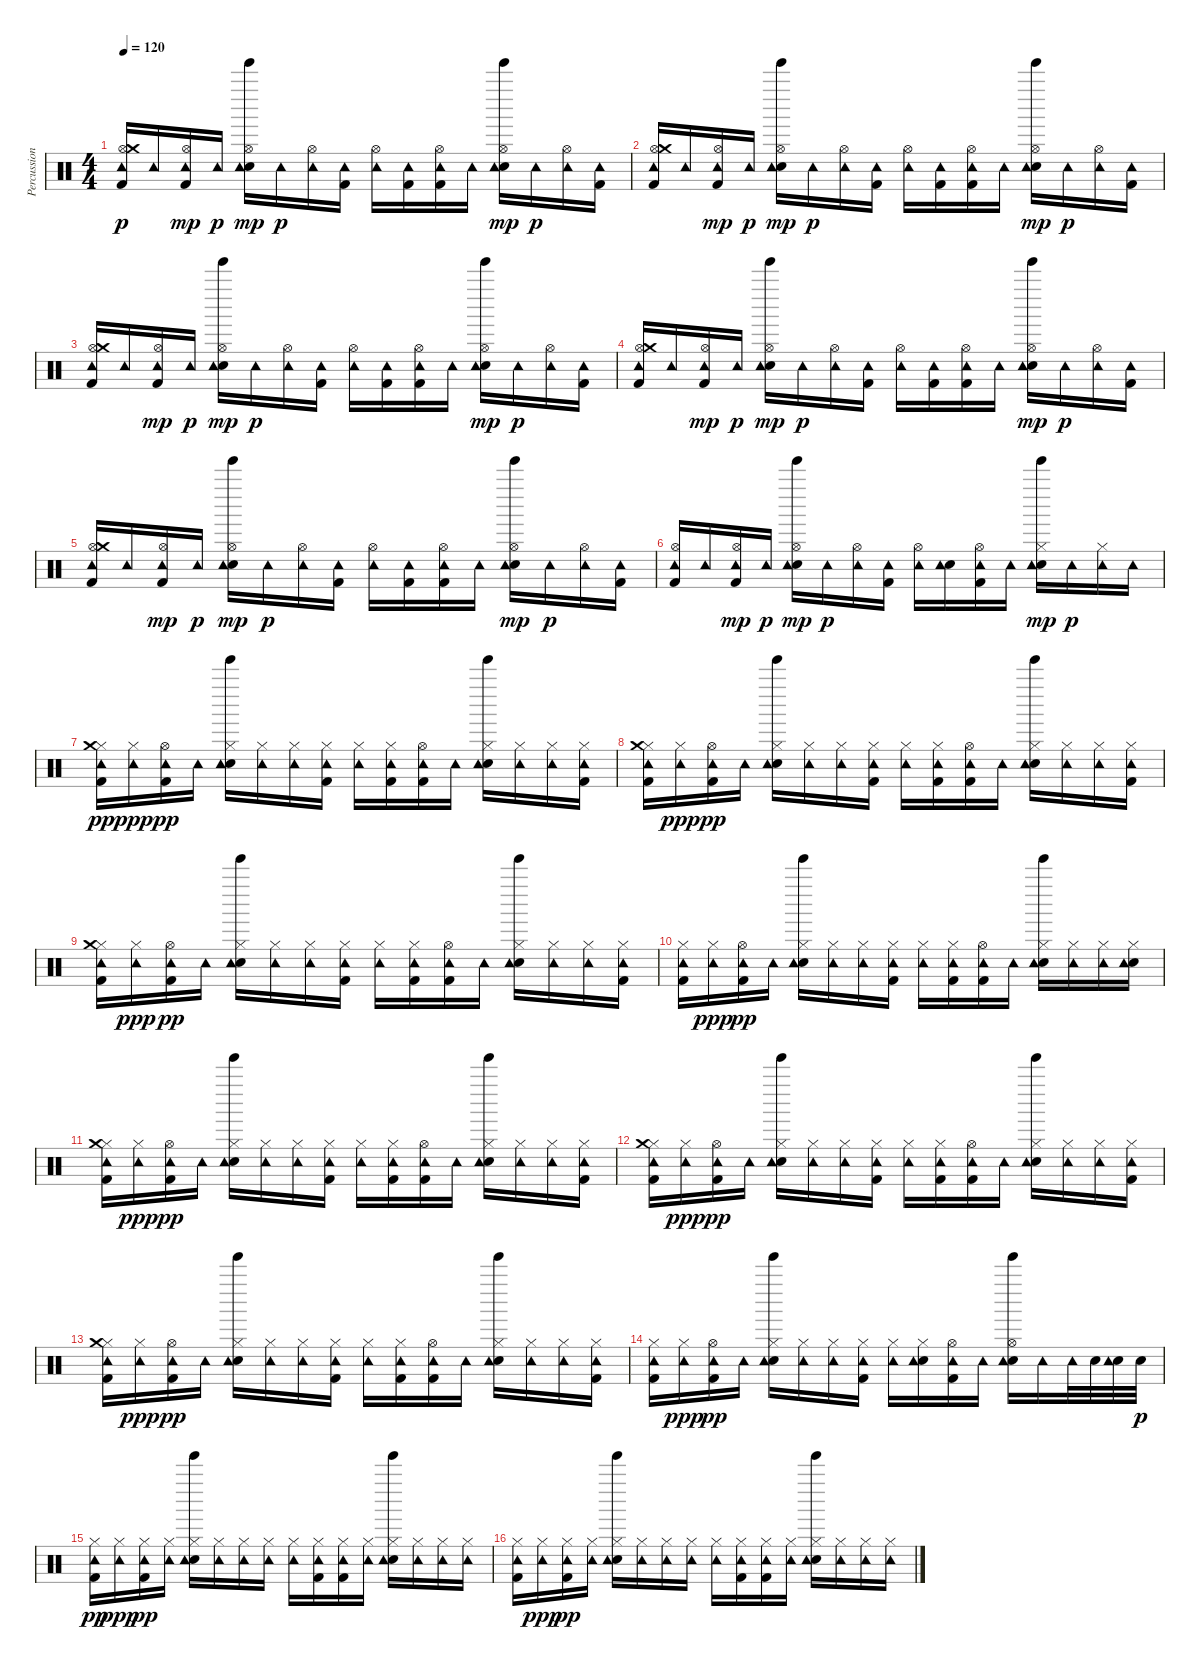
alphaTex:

\track ("Percussioni" "Percussion") {instrument percussion}
\staff {score}
\articulation defaults
\ts (4 4)
\tempo 120
\clef neutral
\ks c
("Kick (hit) 2" "Hi-Hat (open)" "Crash medium (hit)" "Tambourine (hit)").16{dy p} "Tambourine (hit)".16 ("Kick (hit) 2" "Hi-Hat (open)" "Tambourine (hit)").16{dy mp} "Tambourine (hit)".16{dy p} ("Electric Snare (hit)" "Hi-Hat (open)" "Tambourine (hit)" "Tinkle Bell (hit)").16{dy mp} "Tambourine (hit)".16{dy p} ("Hi-Hat (open)" "Tambourine (hit)").16 ("Kick (hit) 2" "Tambourine (hit)").16 ("Hi-Hat (open)" "Tambourine (hit)").16 ("Kick (hit) 2" "Tambourine (hit)").16 ("Kick (hit) 2" "Hi-Hat (open)" "Tambourine (hit)").16 "Tambourine (hit)".16 ("Electric Snare (hit)" "Hi-Hat (open)" "Tambourine (hit)" "Tinkle Bell (hit)").16{dy mp} "Tambourine (hit)".16{dy p} ("Hi-Hat (open)" "Tambourine (hit)").16 ("Kick (hit) 2" "Tambourine (hit)").16 |
("Kick (hit) 2" "Hi-Hat (open)" "Crash medium (hit)" "Tambourine (hit)").16 "Tambourine (hit)".16 ("Kick (hit) 2" "Hi-Hat (open)" "Tambourine (hit)").16{dy mp} "Tambourine (hit)".16{dy p} ("Electric Snare (hit)" "Hi-Hat (open)" "Tambourine (hit)" "Tinkle Bell (hit)").16{dy mp} "Tambourine (hit)".16{dy p} ("Hi-Hat (open)" "Tambourine (hit)").16 ("Kick (hit) 2" "Tambourine (hit)").16 ("Hi-Hat (open)" "Tambourine (hit)").16 ("Kick (hit) 2" "Tambourine (hit)").16 ("Kick (hit) 2" "Hi-Hat (open)" "Tambourine (hit)").16 "Tambourine (hit)".16 ("Electric Snare (hit)" "Hi-Hat (open)" "Tambourine (hit)" "Tinkle Bell (hit)").16{dy mp} "Tambourine (hit)".16{dy p} ("Hi-Hat (open)" "Tambourine (hit)").16 ("Kick (hit) 2" "Tambourine (hit)").16 |
("Kick (hit) 2" "Hi-Hat (open)" "Crash medium (hit)" "Tambourine (hit)").16 "Tambourine (hit)".16 ("Kick (hit) 2" "Hi-Hat (open)" "Tambourine (hit)").16{dy mp} "Tambourine (hit)".16{dy p} ("Electric Snare (hit)" "Hi-Hat (open)" "Tambourine (hit)" "Tinkle Bell (hit)").16{dy mp} "Tambourine (hit)".16{dy p} ("Hi-Hat (open)" "Tambourine (hit)").16 ("Kick (hit) 2" "Tambourine (hit)").16 ("Hi-Hat (open)" "Tambourine (hit)").16 ("Kick (hit) 2" "Tambourine (hit)").16 ("Kick (hit) 2" "Hi-Hat (open)" "Tambourine (hit)").16 "Tambourine (hit)".16 ("Electric Snare (hit)" "Hi-Hat (open)" "Tambourine (hit)" "Tinkle Bell (hit)").16{dy mp} "Tambourine (hit)".16{dy p} ("Hi-Hat (open)" "Tambourine (hit)").16 ("Kick (hit) 2" "Tambourine (hit)").16 |
("Kick (hit) 2" "Hi-Hat (open)" "Crash medium (hit)" "Tambourine (hit)").16 "Tambourine (hit)".16 ("Kick (hit) 2" "Hi-Hat (open)" "Tambourine (hit)").16{dy mp} "Tambourine (hit)".16{dy p} ("Electric Snare (hit)" "Hi-Hat (open)" "Tambourine (hit)" "Tinkle Bell (hit)").16{dy mp} "Tambourine (hit)".16{dy p} ("Hi-Hat (open)" "Tambourine (hit)").16 ("Kick (hit) 2" "Tambourine (hit)").16 ("Hi-Hat (open)" "Tambourine (hit)").16 ("Kick (hit) 2" "Tambourine (hit)").16 ("Kick (hit) 2" "Hi-Hat (open)" "Tambourine (hit)").16 "Tambourine (hit)".16 ("Electric Snare (hit)" "Hi-Hat (open)" "Tambourine (hit)" "Tinkle Bell (hit)").16{dy mp} "Tambourine (hit)".16{dy p} ("Hi-Hat (open)" "Tambourine (hit)").16 ("Kick (hit) 2" "Tambourine (hit)").16 |
("Kick (hit) 2" "Hi-Hat (open)" "Crash medium (hit)" "Tambourine (hit)").16 "Tambourine (hit)".16 ("Kick (hit) 2" "Hi-Hat (open)" "Tambourine (hit)").16{dy mp} "Tambourine (hit)".16{dy p} ("Electric Snare (hit)" "Hi-Hat (open)" "Tambourine (hit)" "Tinkle Bell (hit)").16{dy mp} "Tambourine (hit)".16{dy p} ("Hi-Hat (open)" "Tambourine (hit)").16 ("Kick (hit) 2" "Tambourine (hit)").16 ("Hi-Hat (open)" "Tambourine (hit)").16 ("Kick (hit) 2" "Tambourine (hit)").16 ("Kick (hit) 2" "Hi-Hat (open)" "Tambourine (hit)").16 "Tambourine (hit)".16 ("Electric Snare (hit)" "Hi-Hat (open)" "Tambourine (hit)" "Tinkle Bell (hit)").16{dy mp} "Tambourine (hit)".16{dy p} ("Hi-Hat (open)" "Tambourine (hit)").16 ("Kick (hit) 2" "Tambourine (hit)").16 |
("Kick (hit) 2" "Hi-Hat (open)" "Tambourine (hit)").16 "Tambourine (hit)".16 ("Kick (hit) 2" "Hi-Hat (open)" "Tambourine (hit)").16{dy mp} "Tambourine (hit)".16{dy p} ("Electric Snare (hit)" "Hi-Hat (open)" "Tambourine (hit)" "Tinkle Bell (hit)").16{dy mp} "Tambourine (hit)".16{dy p} ("Hi-Hat (open)" "Tambourine (hit)").16 ("Kick (hit) 2" "Tambourine (hit)").16 ("Hi-Hat (open)" "Tambourine (hit)").16 ("Electric Snare (hit)" "Tambourine (hit)").16 ("Kick (hit) 2" "Hi-Hat (open)" "Tambourine (hit)").16 "Tambourine (hit)".16 ("Electric Snare (hit)" "Hi-Hat (closed)" "Tambourine (hit)" "Tinkle Bell (hit)").16{dy mp} "Tambourine (hit)".16{dy p} ("Hi-Hat (closed)" "Tambourine (hit)").16 "Tambourine (hit)".16 |
("Kick (hit) 2" "Hi-Hat (closed)" "Crash medium (hit)" "Tambourine (hit)").16{dy pp} ("Hi-Hat (closed)" "Tambourine (hit)").16{dy ppp} ("Kick (hit) 2" "Hi-Hat (open)" "Tambourine (hit)").16{dy pp} "Tambourine (hit)".16 ("Electric Snare (hit)" "Hi-Hat (closed)" "Tambourine (hit)" "Tinkle Bell (hit)").16 ("Hi-Hat (closed)" "Tambourine (hit)").16 ("Hi-Hat (closed)" "Tambourine (hit)").16 ("Kick (hit) 2" "Hi-Hat (closed)" "Tambourine (hit)").16 ("Hi-Hat (closed)" "Tambourine (hit)").16 ("Kick (hit) 2" "Hi-Hat (closed)" "Tambourine (hit)").16 ("Kick (hit) 2" "Hi-Hat (open)" "Tambourine (hit)").16 "Tambourine (hit)".16 ("Electric Snare (hit)" "Hi-Hat (closed)" "Tambourine (hit)" "Tinkle Bell (hit)").16 ("Hi-Hat (closed)" "Tambourine (hit)").16 ("Hi-Hat (closed)" "Tambourine (hit)").16 ("Kick (hit) 2" "Hi-Hat (closed)" "Tambourine (hit)").16 |
("Kick (hit) 2" "Hi-Hat (closed)" "Crash medium (hit)" "Tambourine (hit)").16 ("Hi-Hat (closed)" "Tambourine (hit)").16{dy ppp} ("Kick (hit) 2" "Hi-Hat (open)" "Tambourine (hit)").16{dy pp} "Tambourine (hit)".16 ("Electric Snare (hit)" "Hi-Hat (closed)" "Tambourine (hit)" "Tinkle Bell (hit)").16 ("Hi-Hat (closed)" "Tambourine (hit)").16 ("Hi-Hat (closed)" "Tambourine (hit)").16 ("Kick (hit) 2" "Hi-Hat (closed)" "Tambourine (hit)").16 ("Hi-Hat (closed)" "Tambourine (hit)").16 ("Kick (hit) 2" "Hi-Hat (closed)" "Tambourine (hit)").16 ("Kick (hit) 2" "Hi-Hat (open)" "Tambourine (hit)").16 "Tambourine (hit)".16 ("Electric Snare (hit)" "Hi-Hat (closed)" "Tambourine (hit)" "Tinkle Bell (hit)").16 ("Hi-Hat (closed)" "Tambourine (hit)").16 ("Hi-Hat (closed)" "Tambourine (hit)").16 ("Kick (hit) 2" "Hi-Hat (closed)" "Tambourine (hit)").16 |
("Kick (hit) 2" "Hi-Hat (closed)" "Crash medium (hit)" "Tambourine (hit)").16 ("Hi-Hat (closed)" "Tambourine (hit)").16{dy ppp} ("Kick (hit) 2" "Hi-Hat (open)" "Tambourine (hit)").16{dy pp} "Tambourine (hit)".16 ("Electric Snare (hit)" "Hi-Hat (closed)" "Tambourine (hit)" "Tinkle Bell (hit)").16 ("Hi-Hat (closed)" "Tambourine (hit)").16 ("Hi-Hat (closed)" "Tambourine (hit)").16 ("Kick (hit) 2" "Hi-Hat (closed)" "Tambourine (hit)").16 ("Hi-Hat (closed)" "Tambourine (hit)").16 ("Kick (hit) 2" "Hi-Hat (closed)" "Tambourine (hit)").16 ("Kick (hit) 2" "Hi-Hat (open)" "Tambourine (hit)").16 "Tambourine (hit)".16 ("Electric Snare (hit)" "Hi-Hat (closed)" "Tambourine (hit)" "Tinkle Bell (hit)").16 ("Hi-Hat (closed)" "Tambourine (hit)").16 ("Hi-Hat (closed)" "Tambourine (hit)").16 ("Kick (hit) 2" "Hi-Hat (closed)" "Tambourine (hit)").16 |
("Kick (hit) 2" "Hi-Hat (closed)" "Tambourine (hit)").16 ("Hi-Hat (closed)" "Tambourine (hit)").16{dy ppp} ("Kick (hit) 2" "Hi-Hat (open)" "Tambourine (hit)").16{dy pp} "Tambourine (hit)".16 ("Electric Snare (hit)" "Hi-Hat (closed)" "Tambourine (hit)" "Tinkle Bell (hit)").16 ("Hi-Hat (closed)" "Tambourine (hit)").16 ("Hi-Hat (closed)" "Tambourine (hit)").16 ("Kick (hit) 2" "Hi-Hat (closed)" "Tambourine (hit)").16 ("Hi-Hat (closed)" "Tambourine (hit)").16 ("Kick (hit) 2" "Hi-Hat (closed)" "Tambourine (hit)").16 ("Kick (hit) 2" "Hi-Hat (open)" "Tambourine (hit)").16 "Tambourine (hit)".16 ("Electric Snare (hit)" "Hi-Hat (closed)" "Tambourine (hit)" "Tinkle Bell (hit)").16 ("Hi-Hat (closed)" "Tambourine (hit)").16 ("Hi-Hat (closed)" "Tambourine (hit)").16 ("Electric Snare (hit)" "Hi-Hat (closed)" "Tambourine (hit)").16 |
("Kick (hit) 2" "Hi-Hat (closed)" "Crash medium (hit)" "Tambourine (hit)").16 ("Hi-Hat (closed)" "Tambourine (hit)").16{dy ppp} ("Kick (hit) 2" "Hi-Hat (open)" "Tambourine (hit)").16{dy pp} "Tambourine (hit)".16 ("Electric Snare (hit)" "Hi-Hat (closed)" "Tambourine (hit)" "Tinkle Bell (hit)").16 ("Hi-Hat (closed)" "Tambourine (hit)").16 ("Hi-Hat (closed)" "Tambourine (hit)").16 ("Kick (hit) 2" "Hi-Hat (closed)" "Tambourine (hit)").16 ("Hi-Hat (closed)" "Tambourine (hit)").16 ("Kick (hit) 2" "Hi-Hat (closed)" "Tambourine (hit)").16 ("Kick (hit) 2" "Hi-Hat (open)" "Tambourine (hit)").16 "Tambourine (hit)".16 ("Electric Snare (hit)" "Hi-Hat (closed)" "Tambourine (hit)" "Tinkle Bell (hit)").16 ("Hi-Hat (closed)" "Tambourine (hit)").16 ("Hi-Hat (closed)" "Tambourine (hit)").16 ("Kick (hit) 2" "Hi-Hat (closed)" "Tambourine (hit)").16 |
("Kick (hit) 2" "Hi-Hat (closed)" "Crash medium (hit)" "Tambourine (hit)").16 ("Hi-Hat (closed)" "Tambourine (hit)").16{dy ppp} ("Kick (hit) 2" "Hi-Hat (open)" "Tambourine (hit)").16{dy pp} "Tambourine (hit)".16 ("Electric Snare (hit)" "Hi-Hat (closed)" "Tambourine (hit)" "Tinkle Bell (hit)").16 ("Hi-Hat (closed)" "Tambourine (hit)").16 ("Hi-Hat (closed)" "Tambourine (hit)").16 ("Kick (hit) 2" "Hi-Hat (closed)" "Tambourine (hit)").16 ("Hi-Hat (closed)" "Tambourine (hit)").16 ("Kick (hit) 2" "Hi-Hat (closed)" "Tambourine (hit)").16 ("Kick (hit) 2" "Hi-Hat (open)" "Tambourine (hit)").16 "Tambourine (hit)".16 ("Electric Snare (hit)" "Hi-Hat (closed)" "Tambourine (hit)" "Tinkle Bell (hit)").16 ("Hi-Hat (closed)" "Tambourine (hit)").16 ("Hi-Hat (closed)" "Tambourine (hit)").16 ("Kick (hit) 2" "Hi-Hat (closed)" "Tambourine (hit)").16 |
("Kick (hit) 2" "Hi-Hat (closed)" "Crash medium (hit)" "Tambourine (hit)").16 ("Hi-Hat (closed)" "Tambourine (hit)").16{dy ppp} ("Kick (hit) 2" "Hi-Hat (open)" "Tambourine (hit)").16{dy pp} "Tambourine (hit)".16 ("Electric Snare (hit)" "Hi-Hat (closed)" "Tambourine (hit)" "Tinkle Bell (hit)").16 ("Hi-Hat (closed)" "Tambourine (hit)").16 ("Hi-Hat (closed)" "Tambourine (hit)").16 ("Kick (hit) 2" "Hi-Hat (closed)" "Tambourine (hit)").16 ("Hi-Hat (closed)" "Tambourine (hit)").16 ("Kick (hit) 2" "Hi-Hat (closed)" "Tambourine (hit)").16 ("Kick (hit) 2" "Hi-Hat (open)" "Tambourine (hit)").16 "Tambourine (hit)".16 ("Electric Snare (hit)" "Hi-Hat (closed)" "Tambourine (hit)" "Tinkle Bell (hit)").16 ("Hi-Hat (closed)" "Tambourine (hit)").16 ("Hi-Hat (closed)" "Tambourine (hit)").16 ("Kick (hit) 2" "Hi-Hat (closed)" "Tambourine (hit)").16 |
("Kick (hit) 2" "Hi-Hat (closed)" "Tambourine (hit)").16 ("Hi-Hat (closed)" "Tambourine (hit)").16{dy ppp} ("Kick (hit) 2" "Hi-Hat (open)" "Tambourine (hit)").16{dy pp} "Tambourine (hit)".16 ("Electric Snare (hit)" "Hi-Hat (closed)" "Tambourine (hit)" "Tinkle Bell (hit)").16 ("Hi-Hat (closed)" "Tambourine (hit)").16 ("Hi-Hat (closed)" "Tambourine (hit)").16 ("Kick (hit) 2" "Hi-Hat (closed)" "Tambourine (hit)").16 ("Hi-Hat (closed)" "Tambourine (hit)").16 ("Electric Snare (hit)" "Hi-Hat (closed)" "Tambourine (hit)").16 ("Kick (hit) 2" "Hi-Hat (open)" "Tambourine (hit)").16 "Tambourine (hit)".16 ("Electric Snare (hit)" "Hi-Hat (open)" "Tambourine (hit)" "Tinkle Bell (hit)").16 "Tambourine (hit)".16 "Tambourine (hit)".32 "Electric Snare (hit)".32 ("Electric Snare (hit)" "Tambourine (hit)").32 "Electric Snare (hit)".32{dy p} |
("Kick (hit) 2" "Hi-Hat (closed)" "Tambourine (hit)").16{dy pp} ("Hi-Hat (closed)" "Tambourine (hit)").16{dy ppp} ("Kick (hit) 2" "Hi-Hat (closed)" "Tambourine (hit)").16{dy pp} ("Hi-Hat (closed)" "Tambourine (hit)").16 ("Electric Snare (hit)" "Hi-Hat (closed)" "Tambourine (hit)" "Tinkle Bell (hit)").16 ("Hi-Hat (closed)" "Tambourine (hit)").16 ("Hi-Hat (closed)" "Tambourine (hit)").16 ("Hi-Hat (closed)" "Tambourine (hit)").16 ("Hi-Hat (closed)" "Tambourine (hit)").16 ("Kick (hit) 2" "Hi-Hat (closed)" "Tambourine (hit)").16 ("Kick (hit) 2" "Hi-Hat (closed)" "Tambourine (hit)").16 ("Hi-Hat (closed)" "Tambourine (hit)").16 ("Electric Snare (hit)" "Hi-Hat (closed)" "Tambourine (hit)" "Tinkle Bell (hit)").16 ("Hi-Hat (closed)" "Tambourine (hit)").16 ("Hi-Hat (closed)" "Tambourine (hit)").16 ("Hi-Hat (closed)" "Tambourine (hit)").16 |
("Kick (hit) 2" "Hi-Hat (closed)" "Tambourine (hit)").16 ("Hi-Hat (closed)" "Tambourine (hit)").16{dy ppp} ("Kick (hit) 2" "Hi-Hat (closed)" "Tambourine (hit)").16{dy pp} ("Hi-Hat (closed)" "Tambourine (hit)").16 ("Electric Snare (hit)" "Hi-Hat (closed)" "Tambourine (hit)" "Tinkle Bell (hit)").16 ("Hi-Hat (closed)" "Tambourine (hit)").16 ("Hi-Hat (closed)" "Tambourine (hit)").16 ("Hi-Hat (closed)" "Tambourine (hit)").16 ("Hi-Hat (closed)" "Tambourine (hit)").16 ("Kick (hit) 2" "Hi-Hat (closed)" "Tambourine (hit)").16 ("Kick (hit) 2" "Hi-Hat (closed)" "Tambourine (hit)").16 ("Hi-Hat (closed)" "Tambourine (hit)").16 ("Electric Snare (hit)" "Hi-Hat (closed)" "Tambourine (hit)" "Tinkle Bell (hit)").16 ("Hi-Hat (closed)" "Tambourine (hit)").16 ("Hi-Hat (closed)" "Tambourine (hit)").16 ("Hi-Hat (closed)" "Tambourine (hit)").16
